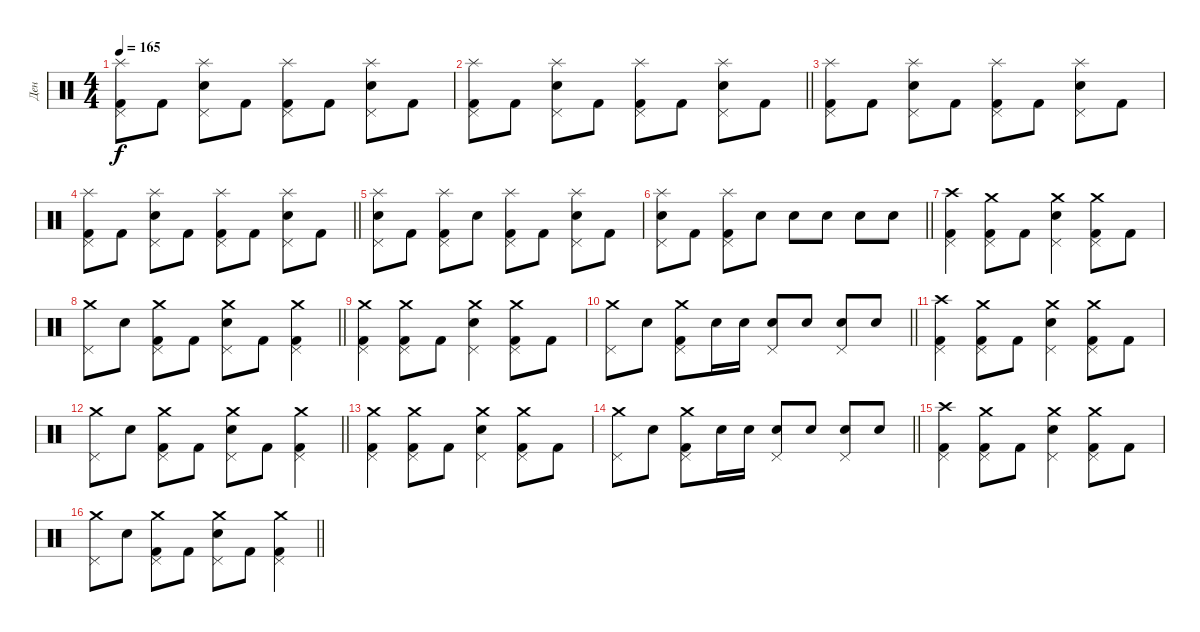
\track ("Ден" "Ден") {instrument percussion}
\staff {score}
\articulation defaults
\ts (4 4)
\tempo 165
\clef neutral
\ks c
("Splash (hit)" "Kick (hit) 2" "Pedal Hi-Hat (hit)").8{dy f} "Kick (hit) 2".8 ("Splash (hit)" "Snare (hit) 2" "Pedal Hi-Hat (hit)").8 "Kick (hit) 2".8 ("Splash (hit)" "Kick (hit) 2" "Pedal Hi-Hat (hit)").8 "Kick (hit) 2".8 ("Splash (hit)" "Snare (hit) 2" "Pedal Hi-Hat (hit)").8 "Kick (hit) 2".8 |
\barLineRight lightlight
("Splash (hit)" "Kick (hit) 2" "Pedal Hi-Hat (hit)").8 "Kick (hit) 2".8 ("Splash (hit)" "Snare (hit) 2" "Pedal Hi-Hat (hit)").8 "Kick (hit) 2".8 ("Splash (hit)" "Kick (hit) 2" "Pedal Hi-Hat (hit)").8 "Kick (hit) 2".8 ("Splash (hit)" "Snare (hit) 2" "Pedal Hi-Hat (hit)").8 "Kick (hit) 2".8 |
("Splash (hit)" "Kick (hit) 2" "Pedal Hi-Hat (hit)").8 "Kick (hit) 2".8 ("Splash (hit)" "Snare (hit) 2" "Pedal Hi-Hat (hit)").8 "Kick (hit) 2".8 ("Splash (hit)" "Kick (hit) 2" "Pedal Hi-Hat (hit)").8 "Kick (hit) 2".8 ("Splash (hit)" "Snare (hit) 2" "Pedal Hi-Hat (hit)").8 "Kick (hit) 2".8 |
\barLineRight lightlight
("Splash (hit)" "Kick (hit) 2" "Pedal Hi-Hat (hit)").8 "Kick (hit) 2".8 ("Splash (hit)" "Snare (hit) 2" "Pedal Hi-Hat (hit)").8 "Kick (hit) 2".8 ("Splash (hit)" "Kick (hit) 2" "Pedal Hi-Hat (hit)").8 "Kick (hit) 2".8 ("Splash (hit)" "Snare (hit) 2" "Pedal Hi-Hat (hit)").8 "Kick (hit) 2".8 |
("Splash (hit)" "Pedal Hi-Hat (hit)" "Snare (hit) 2").8 "Kick (hit) 2".8 ("Splash (hit)" "Pedal Hi-Hat (hit)" "Kick (hit) 2").8 "Snare (hit) 2".8 ("Splash (hit)" "Pedal Hi-Hat (hit)" "Kick (hit) 2").8 "Kick (hit) 2".8 ("Splash (hit)" "Pedal Hi-Hat (hit)" "Snare (hit) 2").8 "Kick (hit) 2".8 |
\barLineRight lightlight
("Splash (hit)" "Pedal Hi-Hat (hit)" "Snare (hit) 2").8 "Kick (hit) 2".8 ("Splash (hit)" "Pedal Hi-Hat (hit)" "Kick (hit) 2").8 "Snare (hit) 2".8 "Snare (hit) 2".8 "Snare (hit) 2".8 "Snare (hit) 2".8 "Snare (hit) 2".8 |
("Crash high (hit)" "Kick (hit) 2" "Pedal Hi-Hat (hit)").4 ("Crash medium (hit)" "Kick (hit) 2" "Pedal Hi-Hat (hit)").8 "Kick (hit) 2".8 ("Crash medium (hit)" "Snare (hit) 2" "Pedal Hi-Hat (hit)").4 ("Crash medium (hit)" "Kick (hit) 2" "Pedal Hi-Hat (hit)").8 "Kick (hit) 2".8 |
\barLineRight lightlight
("Crash medium (hit)" "Pedal Hi-Hat (hit)").8 "Snare (hit) 2".8 ("Crash medium (hit)" "Kick (hit) 2" "Pedal Hi-Hat (hit)").8 "Kick (hit) 2".8 ("Crash medium (hit)" "Snare (hit) 2" "Pedal Hi-Hat (hit)").8 "Kick (hit) 2".8 ("Crash medium (hit)" "Kick (hit) 2" "Pedal Hi-Hat (hit)").4 |
("Crash medium (hit)" "Kick (hit) 2" "Pedal Hi-Hat (hit)").4 ("Crash medium (hit)" "Kick (hit) 2" "Pedal Hi-Hat (hit)").8 "Kick (hit) 2".8 ("Crash medium (hit)" "Snare (hit) 2" "Pedal Hi-Hat (hit)").4 ("Crash medium (hit)" "Kick (hit) 2" "Pedal Hi-Hat (hit)").8 "Kick (hit) 2".8 |
\barLineRight lightlight
("Crash medium (hit)" "Pedal Hi-Hat (hit)").8 "Snare (hit) 2".8 ("Crash medium (hit)" "Kick (hit) 2" "Pedal Hi-Hat (hit)").8 "Snare (hit) 2".16 "Snare (hit) 2".16 ("Snare (hit) 2" "Pedal Hi-Hat (hit)").8 "Snare (hit) 2".8 ("Snare (hit) 2" "Pedal Hi-Hat (hit)").8 "Snare (hit) 2".8 |
("Crash high (hit)" "Kick (hit) 2" "Pedal Hi-Hat (hit)").4 ("Crash medium (hit)" "Kick (hit) 2" "Pedal Hi-Hat (hit)").8 "Kick (hit) 2".8 ("Crash medium (hit)" "Snare (hit) 2" "Pedal Hi-Hat (hit)").4 ("Crash medium (hit)" "Kick (hit) 2" "Pedal Hi-Hat (hit)").8 "Kick (hit) 2".8 |
\barLineRight lightlight
("Crash medium (hit)" "Pedal Hi-Hat (hit)").8 "Snare (hit) 2".8 ("Crash medium (hit)" "Kick (hit) 2" "Pedal Hi-Hat (hit)").8 "Kick (hit) 2".8 ("Crash medium (hit)" "Snare (hit) 2" "Pedal Hi-Hat (hit)").8 "Kick (hit) 2".8 ("Crash medium (hit)" "Kick (hit) 2" "Pedal Hi-Hat (hit)").4 |
("Crash medium (hit)" "Kick (hit) 2" "Pedal Hi-Hat (hit)").4 ("Crash medium (hit)" "Kick (hit) 2" "Pedal Hi-Hat (hit)").8 "Kick (hit) 2".8 ("Crash medium (hit)" "Snare (hit) 2" "Pedal Hi-Hat (hit)").4 ("Crash medium (hit)" "Kick (hit) 2" "Pedal Hi-Hat (hit)").8 "Kick (hit) 2".8 |
\barLineRight lightlight
("Crash medium (hit)" "Pedal Hi-Hat (hit)").8 "Snare (hit) 2".8 ("Crash medium (hit)" "Kick (hit) 2" "Pedal Hi-Hat (hit)").8 "Snare (hit) 2".16 "Snare (hit) 2".16 ("Snare (hit) 2" "Pedal Hi-Hat (hit)").8 "Snare (hit) 2".8 ("Snare (hit) 2" "Pedal Hi-Hat (hit)").8 "Snare (hit) 2".8 |
("Crash high (hit)" "Kick (hit) 2" "Pedal Hi-Hat (hit)").4 ("Crash medium (hit)" "Kick (hit) 2" "Pedal Hi-Hat (hit)").8 "Kick (hit) 2".8 ("Crash medium (hit)" "Snare (hit) 2" "Pedal Hi-Hat (hit)").4 ("Crash medium (hit)" "Kick (hit) 2" "Pedal Hi-Hat (hit)").8 "Kick (hit) 2".8 |
\barLineRight lightlight
("Crash medium (hit)" "Pedal Hi-Hat (hit)").8 "Snare (hit) 2".8 ("Crash medium (hit)" "Kick (hit) 2" "Pedal Hi-Hat (hit)").8 "Kick (hit) 2".8 ("Crash medium (hit)" "Snare (hit) 2" "Pedal Hi-Hat (hit)").8 "Kick (hit) 2".8 ("Crash medium (hit)" "Kick (hit) 2" "Pedal Hi-Hat (hit)").4
